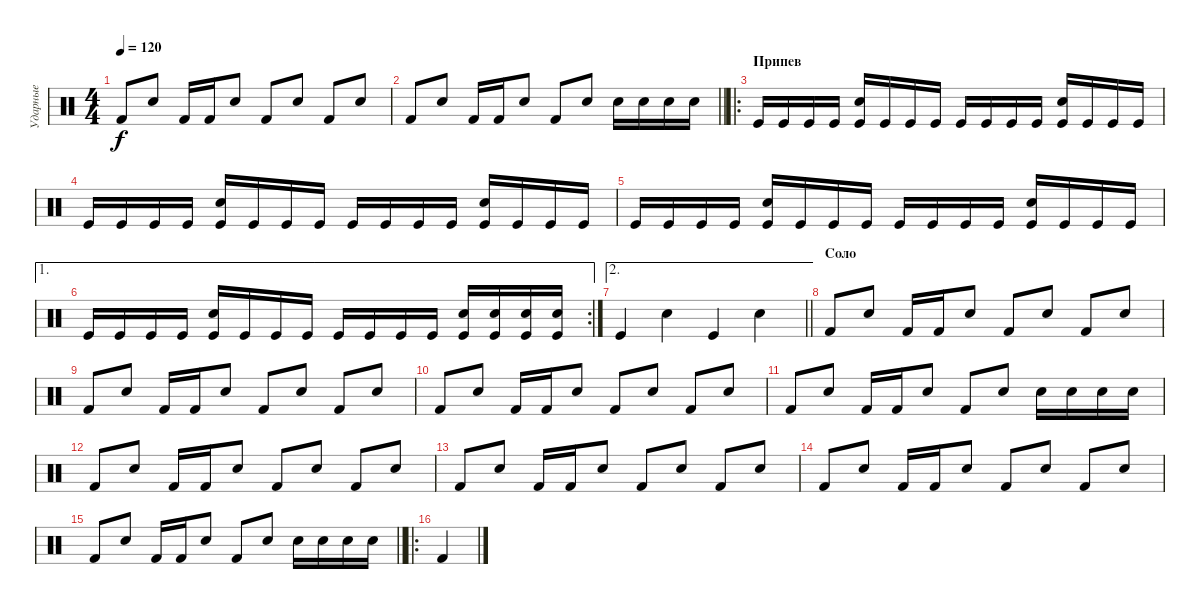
\track ("Ударные" "Ударные") {instrument percussion}
\staff {score}
\articulation defaults
\ts (4 4)
\tempo 120
\clef neutral
\ks c "Kick (hit) 2".8{dy f} "Electric Snare (hit)".8 "Kick (hit) 2".16 "Kick (hit) 2".16 "Electric Snare (hit)".8 "Kick (hit) 2".8 "Electric Snare (hit)".8 "Kick (hit) 2".8 "Electric Snare (hit)".8
|
\barLineRight lightlight "Kick (hit) 2".8 "Electric Snare (hit)".8 "Kick (hit) 2".16 "Kick (hit) 2".16 "Electric Snare (hit)".8 "Kick (hit) 2".8 "Electric Snare (hit)".8 "Electric Snare (hit)".16 "Electric Snare (hit)".16 "Electric Snare (hit)".16 "Electric Snare (hit)".16
|
\ro
\section ("" "Припев")
"Kick (hit)".16 "Kick (hit)".16 "Kick (hit)".16 "Kick (hit)".16 ("Kick (hit)" "Snare (hit) 2").16 "Kick (hit)".16 "Kick (hit)".16 "Kick (hit)".16 "Kick (hit)".16 "Kick (hit)".16 "Kick (hit)".16 "Kick (hit)".16 ("Kick (hit)" "Snare (hit) 2").16 "Kick (hit)".16 "Kick (hit)".16 "Kick (hit)".16 |
"Kick (hit)".16 "Kick (hit)".16 "Kick (hit)".16 "Kick (hit)".16 ("Kick (hit)" "Snare (hit) 2").16 "Kick (hit)".16 "Kick (hit)".16 "Kick (hit)".16 "Kick (hit)".16 "Kick (hit)".16 "Kick (hit)".16 "Kick (hit)".16 ("Kick (hit)" "Snare (hit) 2").16 "Kick (hit)".16 "Kick (hit)".16 "Kick (hit)".16 |
"Kick (hit)".16 "Kick (hit)".16 "Kick (hit)".16 "Kick (hit)".16 ("Kick (hit)" "Snare (hit) 2").16 "Kick (hit)".16 "Kick (hit)".16 "Kick (hit)".16 "Kick (hit)".16 "Kick (hit)".16 "Kick (hit)".16 "Kick (hit)".16 ("Kick (hit)" "Snare (hit) 2").16 "Kick (hit)".16 "Kick (hit)".16 "Kick (hit)".16 |
\ae 1
\rc 2 "Kick (hit)".16 "Kick (hit)".16 "Kick (hit)".16 "Kick (hit)".16
("Kick (hit)" "Snare (hit) 2").16 "Kick (hit)".16 "Kick (hit)".16 "Kick (hit)".16 "Kick (hit)".16 "Kick (hit)".16 "Kick (hit)".16 "Kick (hit)".16 ("Kick (hit)" "Snare (hit) 2").16 ("Kick (hit)" "Snare (hit) 2").16 ("Kick (hit)" "Snare (hit) 2").16 ("Kick (hit)" "Snare (hit) 2").16 |
\ae 2
\barLineRight lightlight "Kick (hit)".4 "Snare (hit) 2".4 "Kick (hit)".4 "Snare (hit) 2".4
|
\section ("" "Соло")
"Kick (hit) 2".8 "Electric Snare (hit)".8 "Kick (hit) 2".16 "Kick (hit) 2".16 "Electric Snare (hit)".8 "Kick (hit) 2".8 "Electric Snare (hit)".8 "Kick (hit) 2".8 "Electric Snare (hit)".8 |
"Kick (hit) 2".8 "Electric Snare (hit)".8 "Kick (hit) 2".16 "Kick (hit) 2".16 "Electric Snare (hit)".8 "Kick (hit) 2".8 "Electric Snare (hit)".8 "Kick (hit) 2".8 "Electric Snare (hit)".8 |
"Kick (hit) 2".8 "Electric Snare (hit)".8 "Kick (hit) 2".16 "Kick (hit) 2".16 "Electric Snare (hit)".8 "Kick (hit) 2".8 "Electric Snare (hit)".8 "Kick (hit) 2".8 "Electric Snare (hit)".8 |
"Kick (hit) 2".8 "Electric Snare (hit)".8 "Kick (hit) 2".16 "Kick (hit) 2".16 "Electric Snare (hit)".8 "Kick (hit) 2".8 "Electric Snare (hit)".8 "Electric Snare (hit)".16 "Electric Snare (hit)".16 "Electric Snare (hit)".16 "Electric Snare (hit)".16 |
"Kick (hit) 2".8 "Electric Snare (hit)".8 "Kick (hit) 2".16 "Kick (hit) 2".16 "Electric Snare (hit)".8 "Kick (hit) 2".8 "Electric Snare (hit)".8 "Kick (hit) 2".8 "Electric Snare (hit)".8 |
"Kick (hit) 2".8 "Electric Snare (hit)".8 "Kick (hit) 2".16 "Kick (hit) 2".16 "Electric Snare (hit)".8 "Kick (hit) 2".8 "Electric Snare (hit)".8 "Kick (hit) 2".8 "Electric Snare (hit)".8 |
"Kick (hit) 2".8 "Electric Snare (hit)".8 "Kick (hit) 2".16 "Kick (hit) 2".16 "Electric Snare (hit)".8 "Kick (hit) 2".8 "Electric Snare (hit)".8 "Kick (hit) 2".8 "Electric Snare (hit)".8 |
\barLineRight lightlight "Kick (hit) 2".8 "Electric Snare (hit)".8 "Kick (hit) 2".16 "Kick (hit) 2".16 "Electric Snare (hit)".8 "Kick (hit) 2".8 "Electric Snare (hit)".8 "Electric Snare (hit)".16 "Electric Snare (hit)".16 "Electric Snare (hit)".16 "Electric Snare (hit)".16
|
\ro "Kick (hit) 2".4
